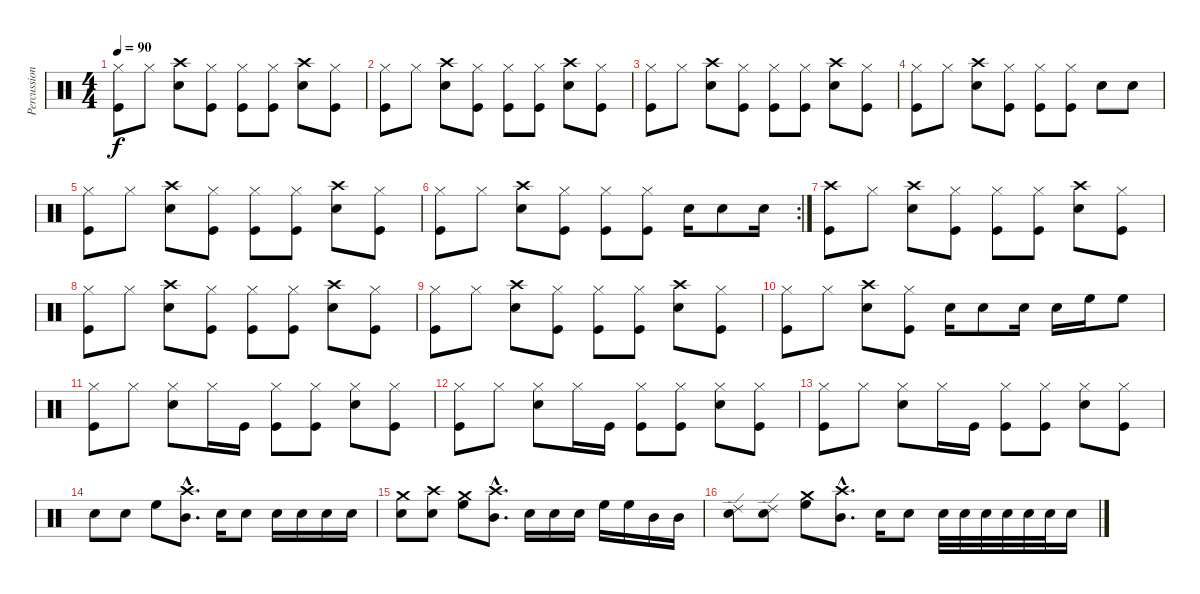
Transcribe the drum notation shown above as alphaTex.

\track ("Percussion" "Percussion") {instrument percussion}
\staff {score}
\articulation defaults
\ts (4 4)
\tempo 90
\clef neutral
\ks c
("Hi-Hat (closed)" "Kick (hit)").8{dy f} "Hi-Hat (closed)".8 ("Crash high (hit)" "Snare (hit) 2").8 ("Hi-Hat (closed)" "Kick (hit)").8 ("Hi-Hat (closed)" "Kick (hit)").8 ("Hi-Hat (closed)" "Kick (hit)").8 ("Crash high (hit)" "Snare (hit) 2").8 ("Hi-Hat (closed)" "Kick (hit)").8 |
("Hi-Hat (closed)" "Kick (hit)").8 "Hi-Hat (closed)".8 ("Crash high (hit)" "Snare (hit) 2").8 ("Hi-Hat (closed)" "Kick (hit)").8 ("Hi-Hat (closed)" "Kick (hit)").8 ("Hi-Hat (closed)" "Kick (hit)").8 ("Crash high (hit)" "Snare (hit) 2").8 ("Hi-Hat (closed)" "Kick (hit)").8 |
("Hi-Hat (closed)" "Kick (hit)").8 "Hi-Hat (closed)".8 ("Crash high (hit)" "Snare (hit) 2").8 ("Hi-Hat (closed)" "Kick (hit)").8 ("Hi-Hat (closed)" "Kick (hit)").8 ("Hi-Hat (closed)" "Kick (hit)").8 ("Crash high (hit)" "Snare (hit) 2").8 ("Hi-Hat (closed)" "Kick (hit)").8 |
("Hi-Hat (closed)" "Kick (hit)").8 "Hi-Hat (closed)".8 ("Crash high (hit)" "Snare (hit) 2").8 ("Hi-Hat (closed)" "Kick (hit)").8 ("Hi-Hat (closed)" "Kick (hit)").8 ("Hi-Hat (closed)" "Kick (hit)").8 "Snare (hit) 2".8 "Snare (hit) 2".8 |
("Hi-Hat (closed)" "Kick (hit)").8 "Hi-Hat (closed)".8 ("Crash high (hit)" "Snare (hit) 2").8 ("Hi-Hat (closed)" "Kick (hit)").8 ("Hi-Hat (closed)" "Kick (hit)").8 ("Hi-Hat (closed)" "Kick (hit)").8 ("Crash high (hit)" "Snare (hit) 2").8 ("Hi-Hat (closed)" "Kick (hit)").8 |
\rc 2
("Hi-Hat (closed)" "Kick (hit)").8 "Hi-Hat (closed)".8 ("Crash high (hit)" "Snare (hit) 2").8 ("Hi-Hat (closed)" "Kick (hit)").8 ("Hi-Hat (closed)" "Kick (hit)").8 ("Hi-Hat (closed)" "Kick (hit)").8 "Snare (hit) 2".16 "Snare (hit) 2".8 "Snare (hit) 2".16 |
("Crash high (hit)" "Kick (hit)").8 "Hi-Hat (closed)".8 ("Crash high (hit)" "Snare (hit) 2").8 ("Hi-Hat (closed)" "Kick (hit)").8 ("Hi-Hat (closed)" "Kick (hit)").8 ("Hi-Hat (closed)" "Kick (hit)").8 ("Crash high (hit)" "Snare (hit) 2").8 ("Hi-Hat (closed)" "Kick (hit)").8 |
("Hi-Hat (closed)" "Kick (hit)").8 "Hi-Hat (closed)".8 ("Crash high (hit)" "Snare (hit) 2").8 ("Hi-Hat (closed)" "Kick (hit)").8 ("Hi-Hat (closed)" "Kick (hit)").8 ("Hi-Hat (closed)" "Kick (hit)").8 ("Crash high (hit)" "Snare (hit) 2").8 ("Hi-Hat (closed)" "Kick (hit)").8 |
("Hi-Hat (closed)" "Kick (hit)").8 "Hi-Hat (closed)".8 ("Crash high (hit)" "Snare (hit) 2").8 ("Hi-Hat (closed)" "Kick (hit)").8 ("Hi-Hat (closed)" "Kick (hit)").8 ("Hi-Hat (closed)" "Kick (hit)").8 ("Crash high (hit)" "Snare (hit) 2").8 ("Hi-Hat (closed)" "Kick (hit)").8 |
("Hi-Hat (closed)" "Kick (hit)").8 "Hi-Hat (closed)".8 ("Crash high (hit)" "Snare (hit) 2").8 ("Hi-Hat (closed)" "Kick (hit)").8 "Snare (hit) 2".16 "Snare (hit) 2".8 "Snare (hit) 2".16 "Snare (hit) 2".16 "High Floor Tom (hit)".16 "High Floor Tom (hit)".8 |
("Hi-Hat (closed)" "Kick (hit)").8 "Hi-Hat (closed)".8 ("Hi-Hat (closed)" "Snare (hit) 2").8 "Hi-Hat (closed)".16 "Kick (hit)".16 ("Hi-Hat (closed)" "Kick (hit)").8 ("Hi-Hat (closed)" "Kick (hit)").8 ("Hi-Hat (closed)" "Snare (hit) 2").8 ("Hi-Hat (closed)" "Kick (hit)").8 |
("Hi-Hat (closed)" "Kick (hit)").8 "Hi-Hat (closed)".8 ("Hi-Hat (closed)" "Snare (hit) 2").8 "Hi-Hat (closed)".16 "Kick (hit)".16 ("Hi-Hat (closed)" "Kick (hit)").8 ("Hi-Hat (closed)" "Kick (hit)").8 ("Hi-Hat (closed)" "Snare (hit) 2").8 ("Hi-Hat (closed)" "Kick (hit)").8 |
("Hi-Hat (closed)" "Kick (hit)").8 "Hi-Hat (closed)".8 ("Hi-Hat (closed)" "Snare (hit) 2").8 "Hi-Hat (closed)".16 "Kick (hit)".16 ("Hi-Hat (closed)" "Kick (hit)").8 ("Hi-Hat (closed)" "Kick (hit)").8 ("Hi-Hat (closed)" "Snare (hit) 2").8 ("Hi-Hat (closed)" "Kick (hit)").8 |
"Snare (hit) 2".8 "Snare (hit) 2".8 "High Floor Tom (hit)".8 ("Crash high (hit)"{hac} "Mid Tom (hit)"{hac}).8{d} "Snare (hit) 2".16 "Snare (hit) 2".8 "Snare (hit) 2".16 "Snare (hit) 2".16 "Snare (hit) 2".16 "Snare (hit) 2".16 |
("Crash medium (hit)" "Snare (hit) 2").8 ("Crash high (hit)" "Snare (hit) 2").8 ("Crash medium (hit)" "High Floor Tom (hit)").8 ("Crash high (hit)"{hac} "Mid Tom (hit)"{hac}).8{d} "Snare (hit) 2".16 "Snare (hit) 2".16 "Snare (hit) 2".16 "High Floor Tom (hit)".16 "High Floor Tom (hit)".16 "Mid Tom (hit)".16 "Mid Tom (hit)".16 |
("Ride (edge) 2" "Snare (hit) 2").8 ("Ride (edge) 2" "Snare (hit) 2").8 ("Crash medium (hit)" "High Floor Tom (hit)").8 ("Crash high (hit)"{hac} "Mid Tom (hit)"{hac}).8{d} "Snare (hit) 2".16 "Snare (hit) 2".8 "Snare (hit) 2".32 "Snare (hit) 2".32 "Snare (hit) 2".32 "Snare (hit) 2".32 "Snare (hit) 2".32 "Snare (hit) 2".32 "Snare (hit) 2".16
